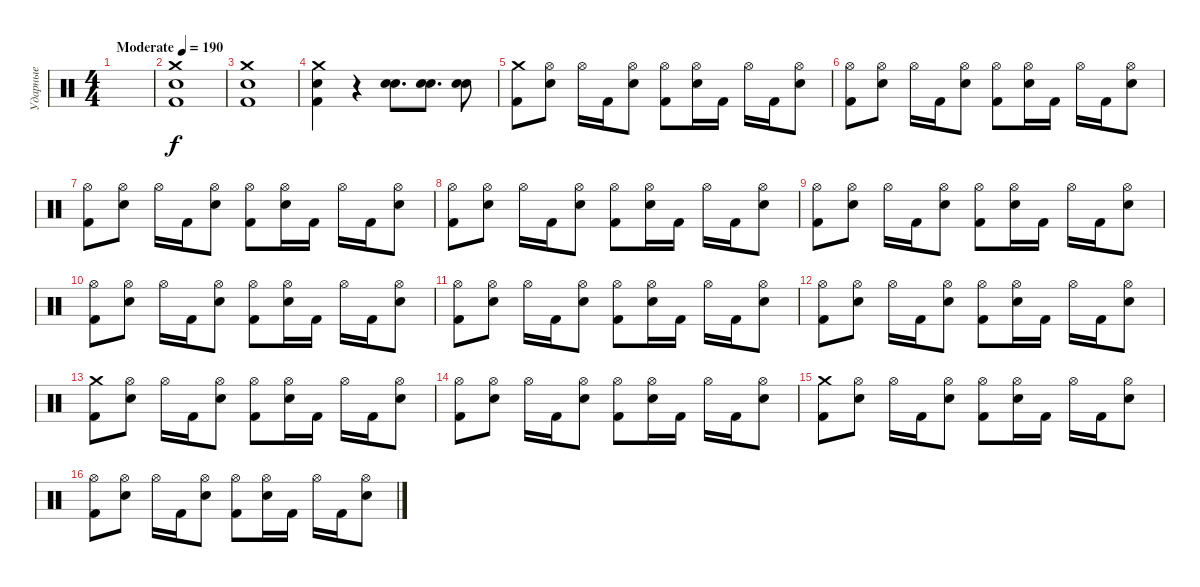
\track ("Ударные" "Ударные") {instrument percussion}
\staff {score}
\articulation defaults
\ts (4 4)
\tempo (190 "Moderate")
\clef neutral
\ks c
|
("Crash medium (hit)" "Electric Snare (hit)" "Kick (hit) 2").1 |
("Crash medium (hit)" "Electric Snare (hit)" "Kick (hit) 2").1 |
("Crash medium (hit)" "Electric Snare (hit)" "Kick (hit) 2").4 r.4 ("Electric Snare (hit)" "Electric Snare (hit)").8{d} ("Electric Snare (hit)" "Electric Snare (hit)").8{d} ("Electric Snare (hit)" "Electric Snare (hit)").8 |
("Kick (hit) 2" "Crash medium (hit)").8 ("Electric Snare (hit)" "Hi-Hat (open)").8 "Hi-Hat (open)".16 "Kick (hit) 2".16 ("Electric Snare (hit)" "Hi-Hat (open)").8 ("Kick (hit) 2" "Hi-Hat (open)").8 ("Electric Snare (hit)" "Hi-Hat (open)").16 "Kick (hit) 2".16 "Hi-Hat (open)".16 "Kick (hit) 2".16 ("Electric Snare (hit)" "Hi-Hat (open)").8 |
("Kick (hit) 2" "Hi-Hat (open)").8 ("Electric Snare (hit)" "Hi-Hat (open)").8 "Hi-Hat (open)".16 "Kick (hit) 2".16 ("Electric Snare (hit)" "Hi-Hat (open)").8 ("Kick (hit) 2" "Hi-Hat (open)").8 ("Electric Snare (hit)" "Hi-Hat (open)").16 "Kick (hit) 2".16 "Hi-Hat (open)".16 "Kick (hit) 2".16 ("Electric Snare (hit)" "Hi-Hat (open)").8 |
("Kick (hit) 2" "Hi-Hat (open)").8 ("Electric Snare (hit)" "Hi-Hat (open)").8 "Hi-Hat (open)".16 "Kick (hit) 2".16 ("Electric Snare (hit)" "Hi-Hat (open)").8 ("Kick (hit) 2" "Hi-Hat (open)").8 ("Electric Snare (hit)" "Hi-Hat (open)").16 "Kick (hit) 2".16 "Hi-Hat (open)".16 "Kick (hit) 2".16 ("Electric Snare (hit)" "Hi-Hat (open)").8 |
("Kick (hit) 2" "Hi-Hat (open)").8 ("Electric Snare (hit)" "Hi-Hat (open)").8 "Hi-Hat (open)".16 "Kick (hit) 2".16 ("Electric Snare (hit)" "Hi-Hat (open)").8 ("Kick (hit) 2" "Hi-Hat (open)").8 ("Electric Snare (hit)" "Hi-Hat (open)").16 "Kick (hit) 2".16 "Hi-Hat (open)".16 "Kick (hit) 2".16 ("Electric Snare (hit)" "Hi-Hat (open)").8 |
("Kick (hit) 2" "Hi-Hat (open)").8 ("Electric Snare (hit)" "Hi-Hat (open)").8 "Hi-Hat (open)".16 "Kick (hit) 2".16 ("Electric Snare (hit)" "Hi-Hat (open)").8 ("Kick (hit) 2" "Hi-Hat (open)").8 ("Electric Snare (hit)" "Hi-Hat (open)").16 "Kick (hit) 2".16 "Hi-Hat (open)".16 "Kick (hit) 2".16 ("Electric Snare (hit)" "Hi-Hat (open)").8 |
("Kick (hit) 2" "Hi-Hat (open)").8 ("Electric Snare (hit)" "Hi-Hat (open)").8 "Hi-Hat (open)".16 "Kick (hit) 2".16 ("Electric Snare (hit)" "Hi-Hat (open)").8 ("Kick (hit) 2" "Hi-Hat (open)").8 ("Electric Snare (hit)" "Hi-Hat (open)").16 "Kick (hit) 2".16 "Hi-Hat (open)".16 "Kick (hit) 2".16 ("Electric Snare (hit)" "Hi-Hat (open)").8 |
("Kick (hit) 2" "Hi-Hat (open)").8 ("Electric Snare (hit)" "Hi-Hat (open)").8 "Hi-Hat (open)".16 "Kick (hit) 2".16 ("Electric Snare (hit)" "Hi-Hat (open)").8 ("Kick (hit) 2" "Hi-Hat (open)").8 ("Electric Snare (hit)" "Hi-Hat (open)").16 "Kick (hit) 2".16 "Hi-Hat (open)".16 "Kick (hit) 2".16 ("Electric Snare (hit)" "Hi-Hat (open)").8 |
("Kick (hit) 2" "Hi-Hat (open)").8 ("Electric Snare (hit)" "Hi-Hat (open)").8 "Hi-Hat (open)".16 "Kick (hit) 2".16 ("Electric Snare (hit)" "Hi-Hat (open)").8 ("Kick (hit) 2" "Hi-Hat (open)").8 ("Electric Snare (hit)" "Hi-Hat (open)").16 "Kick (hit) 2".16 "Hi-Hat (open)".16 "Kick (hit) 2".16 ("Electric Snare (hit)" "Hi-Hat (open)").8 |
("Kick (hit) 2" "Crash medium (hit)").8 ("Electric Snare (hit)" "Hi-Hat (open)").8 "Hi-Hat (open)".16 "Kick (hit) 2".16 ("Electric Snare (hit)" "Hi-Hat (open)").8 ("Kick (hit) 2" "Hi-Hat (open)").8 ("Electric Snare (hit)" "Hi-Hat (open)").16 "Kick (hit) 2".16 "Hi-Hat (open)".16 "Kick (hit) 2".16 ("Electric Snare (hit)" "Hi-Hat (open)").8 |
("Kick (hit) 2" "Hi-Hat (open)").8 ("Electric Snare (hit)" "Hi-Hat (open)").8 "Hi-Hat (open)".16 "Kick (hit) 2".16 ("Electric Snare (hit)" "Hi-Hat (open)").8 ("Kick (hit) 2" "Hi-Hat (open)").8 ("Electric Snare (hit)" "Hi-Hat (open)").16 "Kick (hit) 2".16 "Hi-Hat (open)".16 "Kick (hit) 2".16 ("Electric Snare (hit)" "Hi-Hat (open)").8 |
("Kick (hit) 2" "Crash medium (hit)").8 ("Electric Snare (hit)" "Hi-Hat (open)").8 "Hi-Hat (open)".16 "Kick (hit) 2".16 ("Electric Snare (hit)" "Hi-Hat (open)").8 ("Kick (hit) 2" "Hi-Hat (open)").8 ("Electric Snare (hit)" "Hi-Hat (open)").16 "Kick (hit) 2".16 "Hi-Hat (open)".16 "Kick (hit) 2".16 ("Electric Snare (hit)" "Hi-Hat (open)").8 |
("Kick (hit) 2" "Hi-Hat (open)").8 ("Electric Snare (hit)" "Hi-Hat (open)").8 "Hi-Hat (open)".16 "Kick (hit) 2".16 ("Electric Snare (hit)" "Hi-Hat (open)").8 ("Kick (hit) 2" "Hi-Hat (open)").8 ("Electric Snare (hit)" "Hi-Hat (open)").16 "Kick (hit) 2".16 "Hi-Hat (open)".16 "Kick (hit) 2".16 ("Electric Snare (hit)" "Hi-Hat (open)").8
